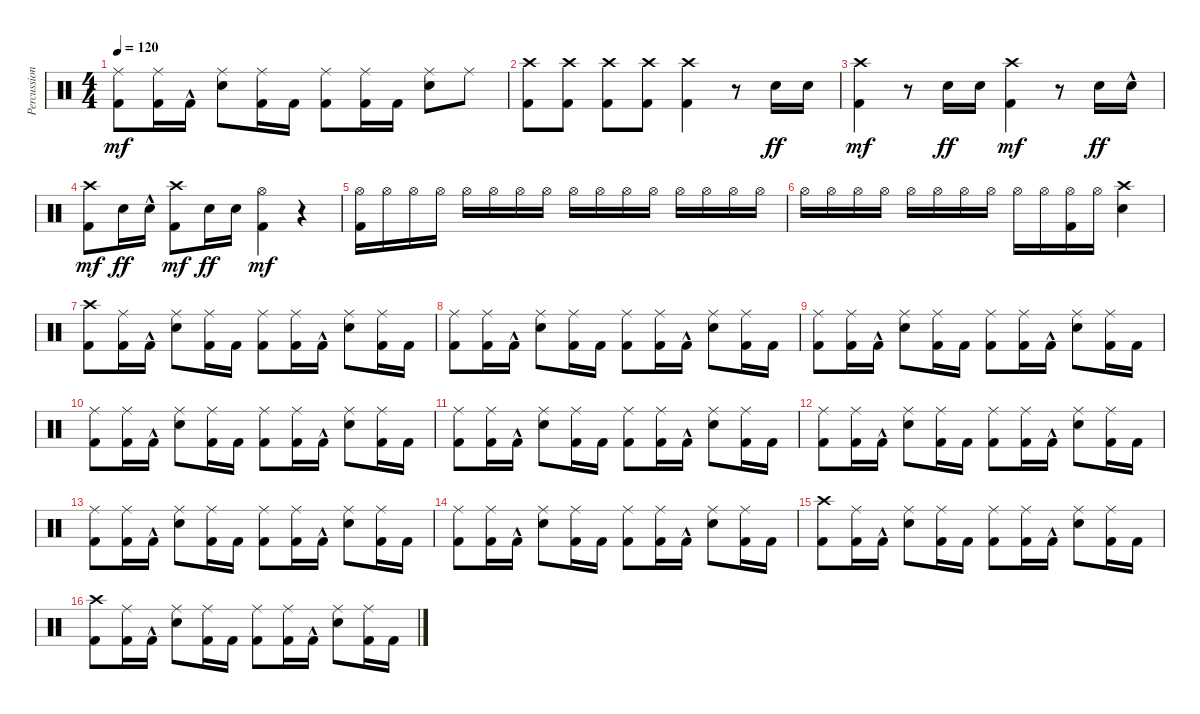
\track ("Percussioni" "Percussion") {instrument percussion}
\staff {score}
\articulation defaults
\ts (4 4)
\tempo 120
\clef neutral
\ks c
("Kick (hit) 2" "Ride (middle)").8{dy mf} ("Kick (hit) 2" "Ride (middle)").16 "Kick (hit) 2"{hac}.16 ("Snare (hit) 2" "Ride (middle)").8 ("Kick (hit) 2" "Ride (middle)").16 "Kick (hit) 2".16 ("Kick (hit) 2" "Ride (middle)").8 ("Kick (hit) 2" "Ride (middle)").16 "Kick (hit) 2".16 ("Snare (hit) 2" "Ride (middle)").8 "Ride (middle)".8 |
("Kick (hit) 2" "Crash high (hit)").8 ("Kick (hit) 2" "Crash high (hit)").8 ("Kick (hit) 2" "Crash high (hit)").8 ("Kick (hit) 2" "Crash high (hit)").8 ("Kick (hit) 2" "Crash high (hit)").4 r.8 "Snare (hit) 2".16{dy ff} "Snare (hit) 2".16 |
("Kick (hit) 2" "Crash high (hit)").4{dy mf} r.8 "Snare (hit) 2".16{dy ff} "Snare (hit) 2".16 ("Kick (hit) 2" "Crash high (hit)").4{dy mf} r.8 "Snare (hit) 2".16{dy ff} "Snare (hit) 2"{hac}.16 |
("Kick (hit) 2" "Crash high (hit)").8{dy mf} "Snare (hit) 2".16{dy ff} "Snare (hit) 2"{hac}.16 ("Kick (hit) 2" "Crash high (hit)").8{dy mf} "Snare (hit) 2".16{dy ff} "Snare (hit) 2".16 ("Kick (hit) 2" "Hi-Hat (open)").4{dy mf} r.4 |
("Kick (hit) 2" "Hi-Hat (open)").16 "Hi-Hat (open)".16 "Hi-Hat (open)".16 "Hi-Hat (open)".16 "Hi-Hat (open)".16 "Hi-Hat (open)".16 "Hi-Hat (open)".16 "Hi-Hat (open)".16 "Hi-Hat (open)".16 "Hi-Hat (open)".16 "Hi-Hat (open)".16 "Hi-Hat (open)".16 "Hi-Hat (open)".16 "Hi-Hat (open)".16 "Hi-Hat (open)".16 "Hi-Hat (open)".16 |
"Hi-Hat (open)".16 "Hi-Hat (open)".16 "Hi-Hat (open)".16 "Hi-Hat (open)".16 "Hi-Hat (open)".16 "Hi-Hat (open)".16 "Hi-Hat (open)".16 "Hi-Hat (open)".16 "Hi-Hat (open)".16 "Hi-Hat (open)".16 ("Kick (hit) 2" "Hi-Hat (open)").16 "Hi-Hat (open)".16 ("Snare (hit) 2" "Crash high (hit)").4 |
("Kick (hit) 2" "Crash high (hit)").8 ("Kick (hit) 2" "Ride (middle)").16 "Kick (hit) 2"{hac}.16 ("Snare (hit) 2" "Ride (middle)").8 ("Kick (hit) 2" "Ride (middle)").16 "Kick (hit) 2".16 ("Kick (hit) 2" "Ride (middle)").8 ("Kick (hit) 2" "Ride (middle)").16 "Kick (hit) 2"{hac}.16 ("Snare (hit) 2" "Ride (middle)").8 ("Kick (hit) 2" "Ride (middle)").16 "Kick (hit) 2".16 |
("Kick (hit) 2" "Ride (middle)").8 ("Kick (hit) 2" "Ride (middle)").16 "Kick (hit) 2"{hac}.16 ("Snare (hit) 2" "Ride (middle)").8 ("Kick (hit) 2" "Ride (middle)").16 "Kick (hit) 2".16 ("Kick (hit) 2" "Ride (middle)").8 ("Kick (hit) 2" "Ride (middle)").16 "Kick (hit) 2"{hac}.16 ("Snare (hit) 2" "Ride (middle)").8 ("Kick (hit) 2" "Ride (middle)").16 "Kick (hit) 2".16 |
("Kick (hit) 2" "Ride (middle)").8 ("Kick (hit) 2" "Ride (middle)").16 "Kick (hit) 2"{hac}.16 ("Snare (hit) 2" "Ride (middle)").8 ("Kick (hit) 2" "Ride (middle)").16 "Kick (hit) 2".16 ("Kick (hit) 2" "Ride (middle)").8 ("Kick (hit) 2" "Ride (middle)").16 "Kick (hit) 2"{hac}.16 ("Snare (hit) 2" "Ride (middle)").8 ("Kick (hit) 2" "Ride (middle)").16 "Kick (hit) 2".16 |
("Kick (hit) 2" "Ride (middle)").8 ("Kick (hit) 2" "Ride (middle)").16 "Kick (hit) 2"{hac}.16 ("Snare (hit) 2" "Ride (middle)").8 ("Kick (hit) 2" "Ride (middle)").16 "Kick (hit) 2".16 ("Kick (hit) 2" "Ride (middle)").8 ("Kick (hit) 2" "Ride (middle)").16 "Kick (hit) 2"{hac}.16 ("Snare (hit) 2" "Ride (middle)").8 ("Kick (hit) 2" "Ride (middle)").16 "Kick (hit) 2".16 |
("Kick (hit) 2" "Ride (middle)").8 ("Kick (hit) 2" "Ride (middle)").16 "Kick (hit) 2"{hac}.16 ("Snare (hit) 2" "Ride (middle)").8 ("Kick (hit) 2" "Ride (middle)").16 "Kick (hit) 2".16 ("Kick (hit) 2" "Ride (middle)").8 ("Kick (hit) 2" "Ride (middle)").16 "Kick (hit) 2"{hac}.16 ("Snare (hit) 2" "Ride (middle)").8 ("Kick (hit) 2" "Ride (middle)").16 "Kick (hit) 2".16 |
("Kick (hit) 2" "Ride (middle)").8 ("Kick (hit) 2" "Ride (middle)").16 "Kick (hit) 2"{hac}.16 ("Snare (hit) 2" "Ride (middle)").8 ("Kick (hit) 2" "Ride (middle)").16 "Kick (hit) 2".16 ("Kick (hit) 2" "Ride (middle)").8 ("Kick (hit) 2" "Ride (middle)").16 "Kick (hit) 2"{hac}.16 ("Snare (hit) 2" "Ride (middle)").8 ("Kick (hit) 2" "Ride (middle)").16 "Kick (hit) 2".16 |
("Kick (hit) 2" "Ride (middle)").8 ("Kick (hit) 2" "Ride (middle)").16 "Kick (hit) 2"{hac}.16 ("Snare (hit) 2" "Ride (middle)").8 ("Kick (hit) 2" "Ride (middle)").16 "Kick (hit) 2".16 ("Kick (hit) 2" "Ride (middle)").8 ("Kick (hit) 2" "Ride (middle)").16 "Kick (hit) 2"{hac}.16 ("Snare (hit) 2" "Ride (middle)").8 ("Kick (hit) 2" "Ride (middle)").16 "Kick (hit) 2".16 |
("Kick (hit) 2" "Ride (middle)").8 ("Kick (hit) 2" "Ride (middle)").16 "Kick (hit) 2"{hac}.16 ("Snare (hit) 2" "Ride (middle)").8 ("Kick (hit) 2" "Ride (middle)").16 "Kick (hit) 2".16 ("Kick (hit) 2" "Ride (middle)").8 ("Kick (hit) 2" "Ride (middle)").16 "Kick (hit) 2"{hac}.16 ("Snare (hit) 2" "Ride (middle)").8 ("Kick (hit) 2" "Ride (middle)").16 "Kick (hit) 2".16 |
("Kick (hit) 2" "Crash high (hit)").8 ("Kick (hit) 2" "Ride (middle)").16 "Kick (hit) 2"{hac}.16 ("Snare (hit) 2" "Ride (middle)").8 ("Kick (hit) 2" "Ride (middle)").16 "Kick (hit) 2".16 ("Kick (hit) 2" "Ride (middle)").8 ("Kick (hit) 2" "Ride (middle)").16 "Kick (hit) 2"{hac}.16 ("Snare (hit) 2" "Ride (middle)").8 ("Kick (hit) 2" "Ride (middle)").16 "Kick (hit) 2".16 |
("Kick (hit) 2" "Crash high (hit)").8 ("Kick (hit) 2" "Ride (middle)").16 "Kick (hit) 2"{hac}.16 ("Snare (hit) 2" "Ride (middle)").8 ("Kick (hit) 2" "Ride (middle)").16 "Kick (hit) 2".16 ("Kick (hit) 2" "Ride (middle)").8 ("Kick (hit) 2" "Ride (middle)").16 "Kick (hit) 2"{hac}.16 ("Snare (hit) 2" "Ride (middle)").8 ("Kick (hit) 2" "Ride (middle)").16 "Kick (hit) 2".16
